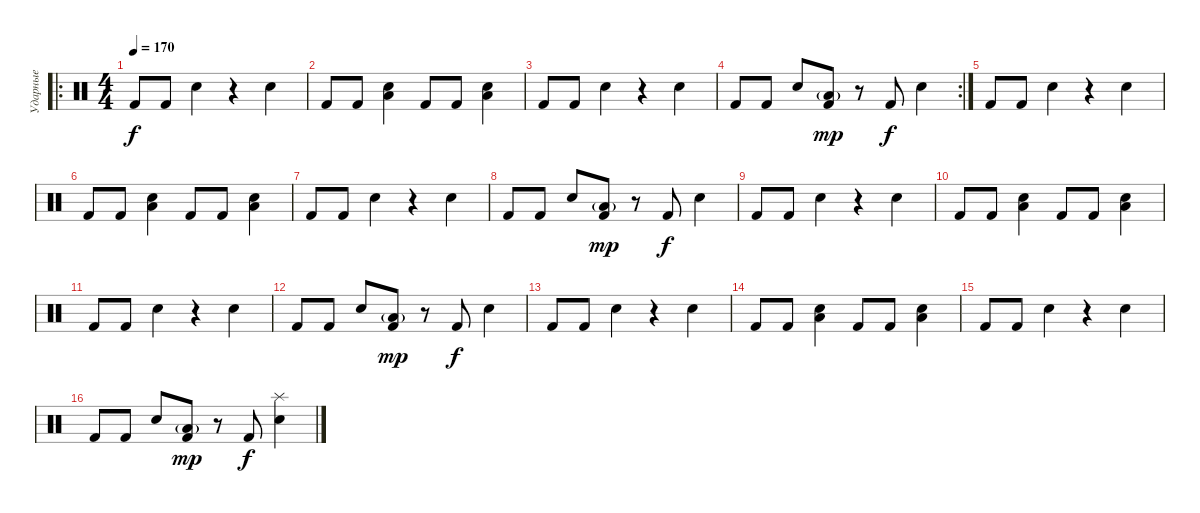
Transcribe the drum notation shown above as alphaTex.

\track ("Ударные" "Ударные") {instrument percussion}
\staff {score}
\articulation defaults
\ro
\ts (4 4)
\tempo 170
\clef neutral
\ks c "Kick (hit) 2".8{dy f} "Kick (hit) 2".8 "Snare (hit) 2".4
r.4 "Snare (hit) 2".4 |
"Kick (hit) 2".8 "Kick (hit) 2".8 ("Snare (hit) 2" "Low Floor Tom (hit)").4 "Kick (hit) 2".8 "Kick (hit) 2".8 ("Snare (hit) 2" "Low Floor Tom (hit)").4 |
"Kick (hit) 2".8 "Kick (hit) 2".8 "Snare (hit) 2".4 r.4 "Snare (hit) 2".4 |
\rc 2 "Kick (hit) 2".8 "Kick (hit) 2".8 "Snare (hit) 2".8
("Kick (hit) 2" "Low Floor Tom (hit)"{g}).8{dy mp} r.8 "Kick (hit) 2".8{dy f} "Snare (hit) 2".4 |
"Kick (hit) 2".8 "Kick (hit) 2".8 "Snare (hit) 2".4 r.4 "Snare (hit) 2".4 |
"Kick (hit) 2".8 "Kick (hit) 2".8 ("Snare (hit) 2" "Low Floor Tom (hit)").4 "Kick (hit) 2".8 "Kick (hit) 2".8 ("Snare (hit) 2" "Low Floor Tom (hit)").4 |
"Kick (hit) 2".8 "Kick (hit) 2".8 "Snare (hit) 2".4 r.4 "Snare (hit) 2".4 |
"Kick (hit) 2".8 "Kick (hit) 2".8 "Snare (hit) 2".8 ("Kick (hit) 2" "Low Floor Tom (hit)"{g}).8{dy mp} r.8 "Kick (hit) 2".8{dy f} "Snare (hit) 2".4 |
"Kick (hit) 2".8 "Kick (hit) 2".8 "Snare (hit) 2".4 r.4 "Snare (hit) 2".4 |
"Kick (hit) 2".8 "Kick (hit) 2".8 ("Snare (hit) 2" "Low Floor Tom (hit)").4 "Kick (hit) 2".8 "Kick (hit) 2".8 ("Snare (hit) 2" "Low Floor Tom (hit)").4 |
"Kick (hit) 2".8 "Kick (hit) 2".8 "Snare (hit) 2".4 r.4 "Snare (hit) 2".4 |
"Kick (hit) 2".8 "Kick (hit) 2".8 "Snare (hit) 2".8 ("Kick (hit) 2" "Low Floor Tom (hit)"{g}).8{dy mp} r.8 "Kick (hit) 2".8{dy f} "Snare (hit) 2".4 |
"Kick (hit) 2".8 "Kick (hit) 2".8 "Snare (hit) 2".4 r.4 "Snare (hit) 2".4 |
"Kick (hit) 2".8 "Kick (hit) 2".8 ("Snare (hit) 2" "Low Floor Tom (hit)").4 "Kick (hit) 2".8 "Kick (hit) 2".8 ("Snare (hit) 2" "Low Floor Tom (hit)").4 |
"Kick (hit) 2".8 "Kick (hit) 2".8 "Snare (hit) 2".4 r.4 "Snare (hit) 2".4 |
"Kick (hit) 2".8 "Kick (hit) 2".8 "Snare (hit) 2".8 ("Kick (hit) 2" "Low Floor Tom (hit)"{g}).8{dy mp} r.8 "Kick (hit) 2".8{dy f} ("Snare (hit) 2" "Splash (hit)").4
